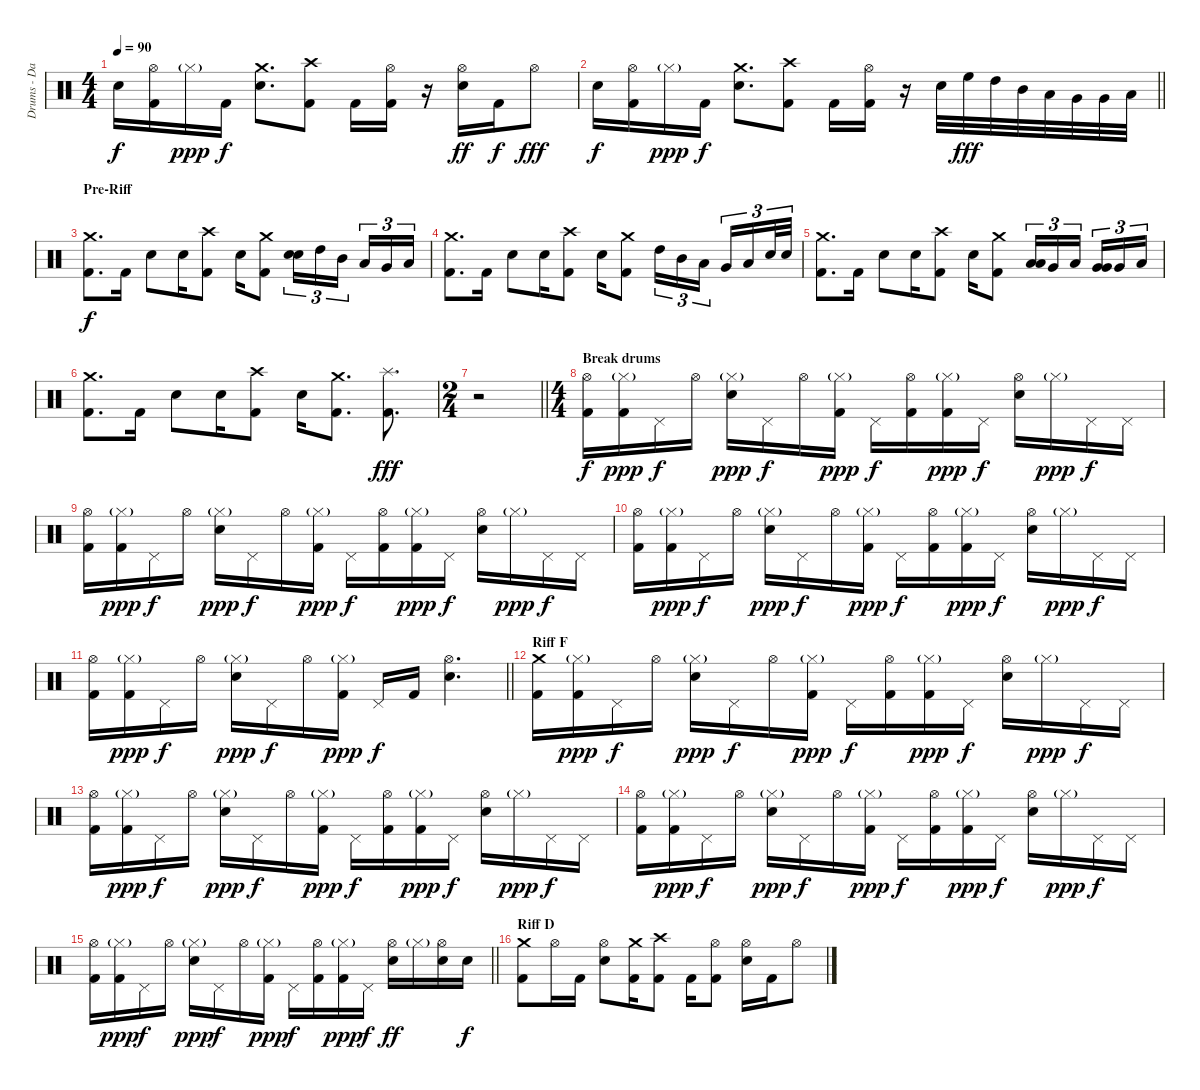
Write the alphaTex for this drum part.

\track ("Drums - Danny Carey" "Drums - Da") {instrument percussion}
\staff {score}
\articulation defaults
\ts (4 4)
\tempo 90
\clef neutral
\ks c "Electric Snare (hit)".16{dy f}
("Kick (hit) 2" "Hi-Hat (open)").16 "Hi-Hat (closed)"{g}.16{dy ppp} "Kick (hit) 2".16{dy f} ("Crash medium (hit)" "Electric Snare (hit)").8{d} ("Crash high (hit)" "Kick (hit) 2").8 "Kick (hit) 2".16 ("Kick (hit) 2" "Hi-Hat (open)").16 r.16 ("Electric Snare (hit)" "Hi-Hat (open)").16{dy ff} "Kick (hit) 2".16{dy f} "Hi-Hat (open)".8{dy fff} |
\barLineRight lightlight "Electric Snare (hit)".16{dy f}
("Kick (hit) 2" "Hi-Hat (open)").16 "Hi-Hat (closed)"{g}.16{dy ppp} "Kick (hit) 2".16{dy f} ("Crash medium (hit)" "Electric Snare (hit)").8{d} ("Crash high (hit)" "Kick (hit) 2").8 "Kick (hit) 2".16 ("Kick (hit) 2" "Hi-Hat (open)").16 r.16 "Electric Snare (hit)".32 "High Floor Tom (hit)".32{dy fff} "High Tom (hit)".32 "Mid Tom (hit)".32 "Low Tom (hit)".32 "Very Low Tom (hit)".32 "Very Low Tom (hit)".32 "Low Floor Tom (hit)".32 |
\section ("" "Pre-Riff")
("Crash medium (hit)" "Kick (hit) 2").8{d dy f} "Kick (hit) 2".16 "Electric Snare (hit)".8 "Electric Snare (hit)".16 ("Crash high (hit)" "Kick (hit) 2").8 "Electric Snare (hit)".16 ("Crash medium (hit)" "Kick (hit) 2").8 ("Electric Snare (hit)" "Electric Snare (hit)").16{tu (3 2) bd 60} "High Tom (hit)".16{tu (3 2)} "Mid Tom (hit)".16{tu (3 2) beam splitsecondary} "Low Tom (hit)".16{tu (3 2)} "Very Low Tom (hit)".16{tu (3 2)} "Low Floor Tom (hit)".16{tu (3 2)} |
("Crash medium (hit)" "Kick (hit) 2").8{d} "Kick (hit) 2".16 "Electric Snare (hit)".8 "Electric Snare (hit)".16 ("Crash high (hit)" "Kick (hit) 2").8 "Electric Snare (hit)".16 ("Crash medium (hit)" "Kick (hit) 2").8 "High Tom (hit)".16{tu (3 2)} "Mid Tom (hit)".16{tu (3 2)} "Low Tom (hit)".16{tu (3 2) beam splitsecondary} "Very Low Tom (hit)".16{tu (3 2)} "Low Floor Tom (hit)".16{tu (3 2)} "Electric Snare (hit)".32{tu (3 2)} "Electric Snare (hit)".32{tu (3 2)} |
("Crash medium (hit)" "Kick (hit) 2").8{d} "Kick (hit) 2".16 "Electric Snare (hit)".8 "Electric Snare (hit)".16 ("Crash high (hit)" "Kick (hit) 2").8 "Electric Snare (hit)".16 ("Crash medium (hit)" "Kick (hit) 2").8 ("Low Tom (hit)" "Low Tom (hit)").16{tu (3 2) bd 60} "Very Low Tom (hit)".16{tu (3 2)} "Low Floor Tom (hit)".16{tu (3 2) beam splitsecondary} ("Very Low Tom (hit)" "Very Low Tom (hit)").16{tu (3 2) bd 60} "Very Low Tom (hit)".16{tu (3 2)} "Low Floor Tom (hit)".16{tu (3 2)} |
("Crash medium (hit)" "Kick (hit) 2").8{d} "Kick (hit) 2".16 "Electric Snare (hit)".8 "Electric Snare (hit)".16 ("Crash high (hit)" "Kick (hit) 2").8 "Electric Snare (hit)".16 ("Crash medium (hit)" "Kick (hit) 2").8{d} ("Splash (hit)" "Kick (hit) 2").8{d dy fff} |
\ts (2 4)
\barLineRight lightlight
r.2 |
\ts (4 4)
\section ("" "Break drums")
("Kick (hit) 2" "Hi-Hat (open)").16{dy f} ("Kick (hit) 2" "Hi-Hat (closed)"{g}).16{dy ppp} "Pedal Hi-Hat (hit)".16{dy f} "Hi-Hat (open)".16 ("Electric Snare (hit)" "Hi-Hat (closed)"{g}).16{dy ppp} "Pedal Hi-Hat (hit)".16{dy f} "Hi-Hat (open)".16 ("Kick (hit) 2" "Hi-Hat (closed)"{g}).16{dy ppp} "Pedal Hi-Hat (hit)".16{dy f} ("Kick (hit) 2" "Hi-Hat (open)").16 ("Kick (hit) 2" "Hi-Hat (closed)"{g}).16{dy ppp} "Pedal Hi-Hat (hit)".16{dy f} ("Electric Snare (hit)" "Hi-Hat (open)").16 "Hi-Hat (closed)"{g}.16{dy ppp} "Pedal Hi-Hat (hit)".16{dy f} "Pedal Hi-Hat (hit)".16 |
("Kick (hit) 2" "Hi-Hat (open)").16 ("Kick (hit) 2" "Hi-Hat (closed)"{g}).16{dy ppp} "Pedal Hi-Hat (hit)".16{dy f} "Hi-Hat (open)".16 ("Electric Snare (hit)" "Hi-Hat (closed)"{g}).16{dy ppp} "Pedal Hi-Hat (hit)".16{dy f} "Hi-Hat (open)".16 ("Kick (hit) 2" "Hi-Hat (closed)"{g}).16{dy ppp} "Pedal Hi-Hat (hit)".16{dy f} ("Kick (hit) 2" "Hi-Hat (open)").16 ("Kick (hit) 2" "Hi-Hat (closed)"{g}).16{dy ppp} "Pedal Hi-Hat (hit)".16{dy f} ("Electric Snare (hit)" "Hi-Hat (open)").16 "Hi-Hat (closed)"{g}.16{dy ppp} "Pedal Hi-Hat (hit)".16{dy f} "Pedal Hi-Hat (hit)".16 |
("Kick (hit) 2" "Hi-Hat (open)").16 ("Kick (hit) 2" "Hi-Hat (closed)"{g}).16{dy ppp} "Pedal Hi-Hat (hit)".16{dy f} "Hi-Hat (open)".16 ("Electric Snare (hit)" "Hi-Hat (closed)"{g}).16{dy ppp} "Pedal Hi-Hat (hit)".16{dy f} "Hi-Hat (open)".16 ("Kick (hit) 2" "Hi-Hat (closed)"{g}).16{dy ppp} "Pedal Hi-Hat (hit)".16{dy f} ("Kick (hit) 2" "Hi-Hat (open)").16 ("Kick (hit) 2" "Hi-Hat (closed)"{g}).16{dy ppp} "Pedal Hi-Hat (hit)".16{dy f} ("Electric Snare (hit)" "Hi-Hat (open)").16 "Hi-Hat (closed)"{g}.16{dy ppp} "Pedal Hi-Hat (hit)".16{dy f} "Pedal Hi-Hat (hit)".16 |
\barLineRight lightlight
("Kick (hit) 2" "Hi-Hat (open)").16 ("Kick (hit) 2" "Hi-Hat (closed)"{g}).16{dy ppp} "Pedal Hi-Hat (hit)".16{dy f} "Hi-Hat (open)".16 ("Electric Snare (hit)" "Hi-Hat (closed)"{g}).16{dy ppp} "Pedal Hi-Hat (hit)".16{dy f} "Hi-Hat (open)".16 ("Kick (hit) 2" "Hi-Hat (closed)"{g}).16{dy ppp} "Pedal Hi-Hat (hit)".16{dy f} "Kick (hit) 2".16 ("Electric Snare (hit)" "Hi-Hat (open)").4{d} |
\section ("" "Riff F")
("Crash medium (hit)" "Kick (hit) 2").16 ("Kick (hit) 2" "Hi-Hat (closed)"{g}).16{dy ppp} "Pedal Hi-Hat (hit)".16{dy f} "Hi-Hat (open)".16 ("Electric Snare (hit)" "Hi-Hat (closed)"{g}).16{dy ppp} "Pedal Hi-Hat (hit)".16{dy f} "Hi-Hat (open)".16 ("Kick (hit) 2" "Hi-Hat (closed)"{g}).16{dy ppp} "Pedal Hi-Hat (hit)".16{dy f} ("Kick (hit) 2" "Hi-Hat (open)").16 ("Kick (hit) 2" "Hi-Hat (closed)"{g}).16{dy ppp} "Pedal Hi-Hat (hit)".16{dy f} ("Electric Snare (hit)" "Hi-Hat (open)").16 "Hi-Hat (closed)"{g}.16{dy ppp} "Pedal Hi-Hat (hit)".16{dy f} "Pedal Hi-Hat (hit)".16 |
("Kick (hit) 2" "Hi-Hat (open)").16 ("Kick (hit) 2" "Hi-Hat (closed)"{g}).16{dy ppp} "Pedal Hi-Hat (hit)".16{dy f} "Hi-Hat (open)".16 ("Electric Snare (hit)" "Hi-Hat (closed)"{g}).16{dy ppp} "Pedal Hi-Hat (hit)".16{dy f} "Hi-Hat (open)".16 ("Kick (hit) 2" "Hi-Hat (closed)"{g}).16{dy ppp} "Pedal Hi-Hat (hit)".16{dy f} ("Kick (hit) 2" "Hi-Hat (open)").16 ("Kick (hit) 2" "Hi-Hat (closed)"{g}).16{dy ppp} "Pedal Hi-Hat (hit)".16{dy f} ("Electric Snare (hit)" "Hi-Hat (open)").16 "Hi-Hat (closed)"{g}.16{dy ppp} "Pedal Hi-Hat (hit)".16{dy f} "Pedal Hi-Hat (hit)".16 |
("Kick (hit) 2" "Hi-Hat (open)").16 ("Kick (hit) 2" "Hi-Hat (closed)"{g}).16{dy ppp} "Pedal Hi-Hat (hit)".16{dy f} "Hi-Hat (open)".16 ("Electric Snare (hit)" "Hi-Hat (closed)"{g}).16{dy ppp} "Pedal Hi-Hat (hit)".16{dy f} "Hi-Hat (open)".16 ("Kick (hit) 2" "Hi-Hat (closed)"{g}).16{dy ppp} "Pedal Hi-Hat (hit)".16{dy f} ("Kick (hit) 2" "Hi-Hat (open)").16 ("Kick (hit) 2" "Hi-Hat (closed)"{g}).16{dy ppp} "Pedal Hi-Hat (hit)".16{dy f} ("Electric Snare (hit)" "Hi-Hat (open)").16 "Hi-Hat (closed)"{g}.16{dy ppp} "Pedal Hi-Hat (hit)".16{dy f} "Pedal Hi-Hat (hit)".16 |
\barLineRight lightlight
("Kick (hit) 2" "Hi-Hat (open)").16 ("Kick (hit) 2" "Hi-Hat (closed)"{g}).16{dy ppp} "Pedal Hi-Hat (hit)".16{dy f} "Hi-Hat (open)".16 ("Electric Snare (hit)" "Hi-Hat (closed)"{g}).16{dy ppp} "Pedal Hi-Hat (hit)".16{dy f} "Hi-Hat (open)".16 ("Kick (hit) 2" "Hi-Hat (closed)"{g}).16{dy ppp} "Pedal Hi-Hat (hit)".16{dy f} ("Kick (hit) 2" "Hi-Hat (open)").16 ("Kick (hit) 2" "Hi-Hat (closed)"{g}).16{dy ppp} "Pedal Hi-Hat (hit)".16{dy f} ("Electric Snare (hit)" "Hi-Hat (open)").16{dy ff} "Hi-Hat (closed)"{g}.16 ("Electric Snare (hit)" "Hi-Hat (open)").16 "Electric Snare (hit)".16{dy f} |
\section ("" "Riff D")
("Crash medium (hit)" "Kick (hit) 2").8 "Hi-Hat (open)".16 "Kick (hit) 2".16 ("Electric Snare (hit)" "Hi-Hat (open)").8 ("Crash medium (hit)" "Kick (hit) 2").16 ("Crash high (hit)" "Kick (hit) 2").8 "Kick (hit) 2".16 ("Kick (hit) 2" "Hi-Hat (open)").8 ("Electric Snare (hit)" "Hi-Hat (open)").16 "Kick (hit) 2".16 "Hi-Hat (open)".8
